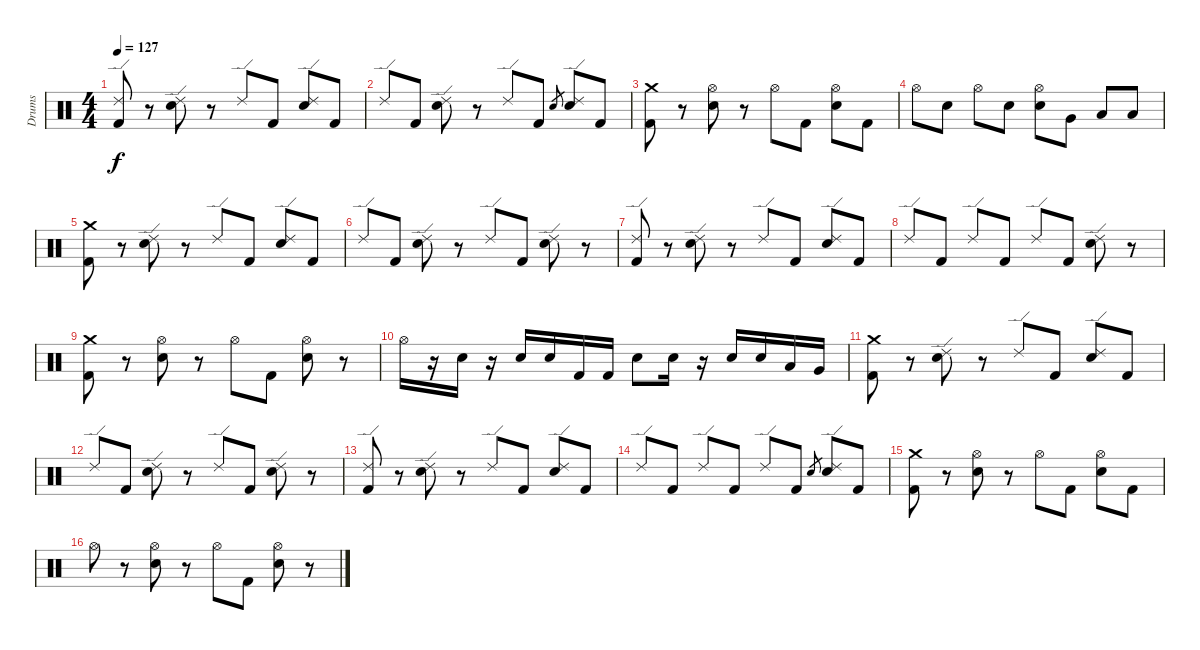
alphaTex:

\track ("Drums" "Drums") {instrument percussion}
\staff {score}
\articulation defaults
\ts (4 4)
\tempo 127
\clef neutral
\ks c
("Ride (edge) 2" "Kick (hit) 2").8{dy f} r.8 ("Ride (edge) 2" "Electric Snare (hit)").8 r.8 "Ride (edge) 2".8 "Kick (hit) 2".8 ("Ride (edge) 2" "Electric Snare (hit)").8 "Kick (hit) 2".8 |
"Ride (edge) 2".8 "Kick (hit) 2".8 ("Ride (edge) 2" "Electric Snare (hit)").8 r.8 "Ride (edge) 2".8 "Kick (hit) 2".8 "Electric Snare (hit)".8{gr} ("Ride (edge) 2" "Electric Snare (hit)").8 "Kick (hit) 2".8 |
("Crash medium (hit)" "Kick (hit) 2").8 r.8 ("Hi-Hat (open)" "Electric Snare (hit)").8 r.8 "Hi-Hat (open)".8 "Kick (hit) 2".8 ("Hi-Hat (open)" "Electric Snare (hit)").8 "Kick (hit) 2".8 |
"Hi-Hat (open)".8 "Electric Snare (hit)".8 "Hi-Hat (open)".8 "Electric Snare (hit)".8 ("Hi-Hat (open)" "Electric Snare (hit)").8 "Very Low Tom (hit)".8 "Low Tom (hit)".8 "Low Tom (hit)".8 |
("Crash medium (hit)" "Kick (hit) 2").8 r.8 ("Ride (edge) 2" "Electric Snare (hit)").8 r.8 "Ride (edge) 2".8 "Kick (hit) 2".8 ("Ride (edge) 2" "Electric Snare (hit)").8 "Kick (hit) 2".8 |
"Ride (edge) 2".8 "Kick (hit) 2".8 ("Ride (edge) 2" "Electric Snare (hit)").8 r.8 "Ride (edge) 2".8 "Kick (hit) 2".8 ("Ride (edge) 2" "Electric Snare (hit)").8 r.8 |
("Ride (edge) 2" "Kick (hit) 2").8 r.8 ("Ride (edge) 2" "Electric Snare (hit)").8 r.8 "Ride (edge) 2".8 "Kick (hit) 2".8 ("Ride (edge) 2" "Electric Snare (hit)").8 "Kick (hit) 2".8 |
"Ride (edge) 2".8 "Kick (hit) 2".8 "Ride (edge) 2".8 "Kick (hit) 2".8 "Ride (edge) 2".8 "Kick (hit) 2".8 ("Ride (edge) 2" "Electric Snare (hit)").8 r.8 |
("Crash medium (hit)" "Kick (hit) 2").8 r.8 ("Hi-Hat (open)" "Electric Snare (hit)").8 r.8 "Hi-Hat (open)".8 "Kick (hit) 2".8 ("Hi-Hat (open)" "Electric Snare (hit)").8 r.8 |
"Hi-Hat (open)".16 r.16 "Electric Snare (hit)".16 r.16 "Electric Snare (hit)".16 "Electric Snare (hit)".16 "Kick (hit) 2".16 "Kick (hit) 2".16 "Electric Snare (hit)".8 "Electric Snare (hit)".16 r.16 "Electric Snare (hit)".16 "Electric Snare (hit)".16 "Low Tom (hit)".16 "Very Low Tom (hit)".16 |
("Crash medium (hit)" "Kick (hit) 2").8 r.8 ("Ride (edge) 2" "Electric Snare (hit)").8 r.8 "Ride (edge) 2".8 "Kick (hit) 2".8 ("Ride (edge) 2" "Electric Snare (hit)").8 "Kick (hit) 2".8 |
"Ride (edge) 2".8 "Kick (hit) 2".8 ("Ride (edge) 2" "Electric Snare (hit)").8 r.8 "Ride (edge) 2".8 "Kick (hit) 2".8 ("Ride (edge) 2" "Electric Snare (hit)").8 r.8 |
("Ride (edge) 2" "Kick (hit) 2").8 r.8 ("Ride (edge) 2" "Electric Snare (hit)").8 r.8 "Ride (edge) 2".8 "Kick (hit) 2".8 ("Ride (edge) 2" "Electric Snare (hit)").8 "Kick (hit) 2".8 |
"Ride (edge) 2".8 "Kick (hit) 2".8 "Ride (edge) 2".8 "Kick (hit) 2".8 "Ride (edge) 2".8 "Kick (hit) 2".8 "Electric Snare (hit)".8{gr} ("Ride (edge) 2" "Electric Snare (hit)").8 "Kick (hit) 2".8 |
("Crash medium (hit)" "Kick (hit) 2").8 r.8 ("Hi-Hat (open)" "Electric Snare (hit)").8 r.8 "Hi-Hat (open)".8 "Kick (hit) 2".8 ("Hi-Hat (open)" "Electric Snare (hit)").8 "Kick (hit) 2".8 |
"Hi-Hat (open)".8 r.8 ("Hi-Hat (open)" "Electric Snare (hit)").8 r.8 "Hi-Hat (open)".8 "Kick (hit) 2".8 ("Hi-Hat (open)" "Electric Snare (hit)").8 r.8
